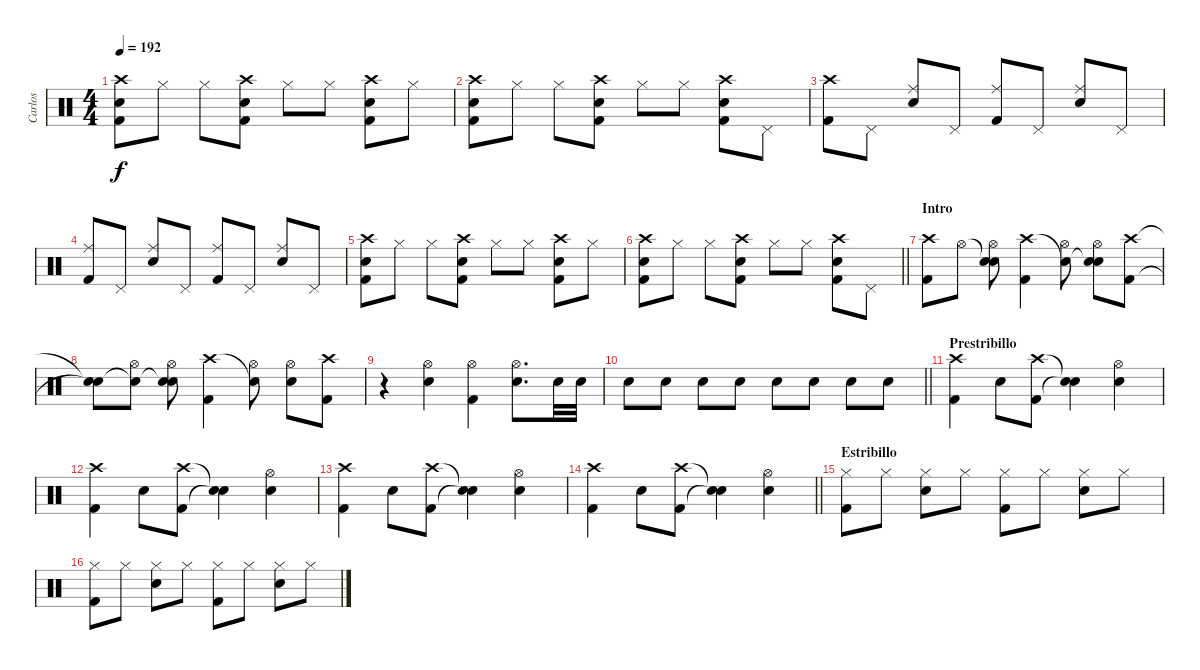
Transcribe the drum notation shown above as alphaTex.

\track ("Carlos" "Carlos") {instrument percussion}
\staff {score}
\articulation defaults
\ts (4 4)
\tempo 192
\clef neutral
\ks c
("Crash high (hit)" "Kick (hit) 2" "Snare (hit) 2").8{dy f} "Hi-Hat (closed)".8 "Hi-Hat (closed)".8 ("Crash high (hit)" "Kick (hit) 2" "Snare (hit) 2").8 "Hi-Hat (closed)".8 "Hi-Hat (closed)".8 ("Crash high (hit)" "Kick (hit) 2" "Snare (hit) 2").8 "Hi-Hat (closed)".8 |
("Crash high (hit)" "Kick (hit) 2" "Snare (hit) 2").8 "Hi-Hat (closed)".8 "Hi-Hat (closed)".8 ("Crash high (hit)" "Kick (hit) 2" "Snare (hit) 2").8 "Hi-Hat (closed)".8 "Hi-Hat (closed)".8 ("Crash high (hit)" "Kick (hit) 2" "Snare (hit) 2").8 "Pedal Hi-Hat (hit)".8 |
("Crash high (hit)" "Kick (hit) 2").8 "Pedal Hi-Hat (hit)".8 ("Ride (middle)" "Snare (hit) 2").8 "Pedal Hi-Hat (hit)".8 ("Ride (middle)" "Kick (hit) 2").8 "Pedal Hi-Hat (hit)".8 ("Ride (middle)" "Snare (hit) 2").8 "Pedal Hi-Hat (hit)".8 |
("Ride (middle)" "Kick (hit) 2").8 "Pedal Hi-Hat (hit)".8 ("Ride (middle)" "Snare (hit) 2").8 "Pedal Hi-Hat (hit)".8 ("Ride (middle)" "Kick (hit) 2").8 "Pedal Hi-Hat (hit)".8 ("Ride (middle)" "Snare (hit) 2").8 "Pedal Hi-Hat (hit)".8 |
("Crash high (hit)" "Kick (hit) 2" "Snare (hit) 2").8 "Hi-Hat (closed)".8 "Hi-Hat (closed)".8 ("Crash high (hit)" "Kick (hit) 2" "Snare (hit) 2").8 "Hi-Hat (closed)".8 "Hi-Hat (closed)".8 ("Crash high (hit)" "Kick (hit) 2" "Snare (hit) 2").8 "Hi-Hat (closed)".8 |
\barLineRight lightlight
("Crash high (hit)" "Kick (hit) 2" "Snare (hit) 2").8 "Hi-Hat (closed)".8 "Hi-Hat (closed)".8 ("Crash high (hit)" "Kick (hit) 2" "Snare (hit) 2").8 "Hi-Hat (closed)".8 "Hi-Hat (closed)".8 ("Crash high (hit)" "Kick (hit) 2" "Snare (hit) 2").8 "Pedal Hi-Hat (hit)".8 |
\section ("" "Intro")
("Crash high (hit)" "Kick (hit) 2").8 "Hi-Hat (open)".8 ("Snare (hit)"{t} "Hi-Hat (open)" "Snare (hit) 2").8 ("Crash high (hit)" "Kick (hit) 2").4 ("Snare (hit)"{t} "Hi-Hat (open)").8 ("Snare (hit)"{t} "Hi-Hat (open)" "Snare (hit) 2").8 ("Crash high (hit)" "Kick (hit) 2").8 |
("Snare (hit)"{t} "Snare (hit)"{t}).8 ("Snare (hit)"{t} "Hi-Hat (open)").8 ("Snare (hit)"{t} "Hi-Hat (open)" "Snare (hit) 2").8 ("Crash high (hit)" "Kick (hit) 2").4 ("Snare (hit)"{t} "Hi-Hat (open)").8 ("Hi-Hat (open)" "Snare (hit) 2").8 ("Crash high (hit)" "Kick (hit) 2").8 |
r.4 ("Hi-Hat (open)" "Snare (hit) 2").4 ("Hi-Hat (open)" "Kick (hit) 2").4 ("Hi-Hat (open)" "Snare (hit) 2").8{d} "Snare (hit) 2".32 "Snare (hit) 2".32 |
\barLineRight lightlight "Snare (hit) 2".8 "Snare (hit) 2".8 "Snare (hit) 2".8 "Snare (hit) 2".8 "Snare (hit) 2".8 "Snare (hit) 2".8 "Snare (hit) 2".8 "Snare (hit) 2".8
|
\section ("" "Prestribillo")
("Crash high (hit)" "Kick (hit) 2").4 "Snare (hit) 2".8 ("Crash high (hit)" "Kick (hit) 2").8 ("Snare (hit)"{t} "Snare (hit)"{t}).4 ("Hi-Hat (open)" "Snare (hit) 2").4 |
("Crash high (hit)" "Kick (hit) 2").4 "Snare (hit) 2".8 ("Crash high (hit)" "Kick (hit) 2").8 ("Snare (hit)"{t} "Snare (hit)"{t}).4 ("Hi-Hat (open)" "Snare (hit) 2").4 |
("Crash high (hit)" "Kick (hit) 2").4 "Snare (hit) 2".8 ("Crash high (hit)" "Kick (hit) 2").8 ("Snare (hit)"{t} "Snare (hit)"{t}).4 ("Hi-Hat (open)" "Snare (hit) 2").4 |
\barLineRight lightlight
("Crash high (hit)" "Kick (hit) 2").4 "Snare (hit) 2".8 ("Crash high (hit)" "Kick (hit) 2").8 ("Snare (hit)"{t} "Snare (hit)"{t}).4 ("Hi-Hat (open)" "Snare (hit) 2").4 |
\section ("" "Estribillo")
("Hi-Hat (closed)" "Kick (hit) 2").8 "Hi-Hat (closed)".8 ("Hi-Hat (closed)" "Snare (hit) 2").8 "Hi-Hat (closed)".8 ("Hi-Hat (closed)" "Kick (hit) 2").8 "Hi-Hat (closed)".8 ("Hi-Hat (closed)" "Snare (hit) 2").8 "Hi-Hat (closed)".8 |
("Hi-Hat (closed)" "Kick (hit) 2").8 "Hi-Hat (closed)".8 ("Hi-Hat (closed)" "Snare (hit) 2").8 "Hi-Hat (closed)".8 ("Hi-Hat (closed)" "Kick (hit) 2").8 "Hi-Hat (closed)".8 ("Hi-Hat (closed)" "Snare (hit) 2").8 "Hi-Hat (closed)".8
